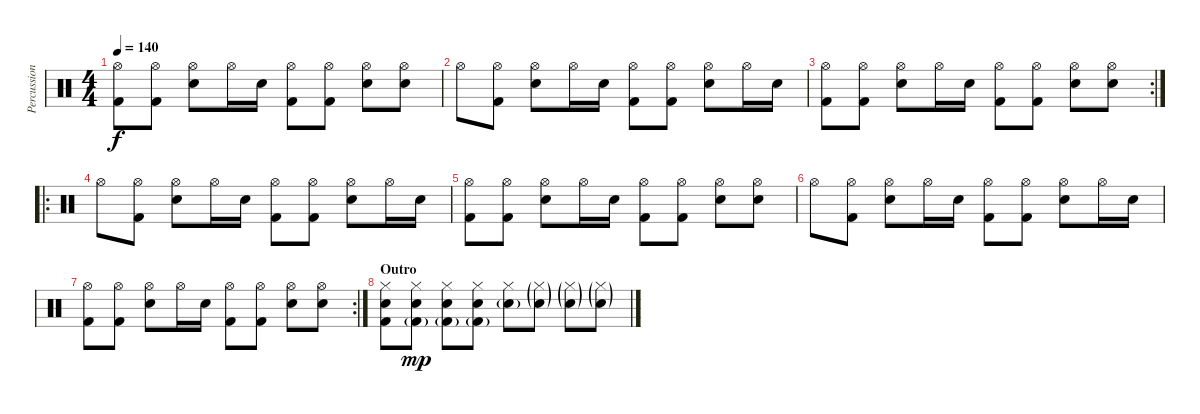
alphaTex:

\track ("Percussion" "Percussion") {instrument percussion}
\staff {score}
\articulation defaults
\ts (4 4)
\tempo 140
\clef neutral
\ks c
("Hi-Hat (open)" "Kick (hit) 2").8{dy f} ("Hi-Hat (open)" "Kick (hit) 2").8 ("Hi-Hat (open)" "Snare (hit) 2").8 "Hi-Hat (open)".16 "Snare (hit) 2".16 ("Hi-Hat (open)" "Kick (hit) 2").8 ("Hi-Hat (open)" "Kick (hit) 2").8 ("Hi-Hat (open)" "Snare (hit) 2").8 ("Hi-Hat (open)" "Snare (hit) 2").8 |
"Hi-Hat (open)".8 ("Hi-Hat (open)" "Kick (hit) 2").8 ("Hi-Hat (open)" "Snare (hit) 2").8 "Hi-Hat (open)".16 "Snare (hit) 2".16 ("Hi-Hat (open)" "Kick (hit) 2").8 ("Hi-Hat (open)" "Kick (hit) 2").8 ("Hi-Hat (open)" "Snare (hit) 2").8 "Hi-Hat (open)".16 "Snare (hit) 2".16 |
\rc 2
("Hi-Hat (open)" "Kick (hit) 2").8 ("Hi-Hat (open)" "Kick (hit) 2").8 ("Hi-Hat (open)" "Snare (hit) 2").8 "Hi-Hat (open)".16 "Snare (hit) 2".16 ("Hi-Hat (open)" "Kick (hit) 2").8 ("Hi-Hat (open)" "Kick (hit) 2").8 ("Hi-Hat (open)" "Snare (hit) 2").8 ("Hi-Hat (open)" "Snare (hit) 2").8 |
\ro "Hi-Hat (open)".8
("Hi-Hat (open)" "Kick (hit) 2").8 ("Hi-Hat (open)" "Snare (hit) 2").8 "Hi-Hat (open)".16 "Snare (hit) 2".16 ("Hi-Hat (open)" "Kick (hit) 2").8 ("Hi-Hat (open)" "Kick (hit) 2").8 ("Hi-Hat (open)" "Snare (hit) 2").8 "Hi-Hat (open)".16 "Snare (hit) 2".16 |
("Hi-Hat (open)" "Kick (hit) 2").8 ("Hi-Hat (open)" "Kick (hit) 2").8 ("Hi-Hat (open)" "Snare (hit) 2").8 "Hi-Hat (open)".16 "Snare (hit) 2".16 ("Hi-Hat (open)" "Kick (hit) 2").8 ("Hi-Hat (open)" "Kick (hit) 2").8 ("Hi-Hat (open)" "Snare (hit) 2").8 ("Hi-Hat (open)" "Snare (hit) 2").8 |
"Hi-Hat (open)".8 ("Hi-Hat (open)" "Kick (hit) 2").8 ("Hi-Hat (open)" "Snare (hit) 2").8 "Hi-Hat (open)".16 "Snare (hit) 2".16 ("Hi-Hat (open)" "Kick (hit) 2").8 ("Hi-Hat (open)" "Kick (hit) 2").8 ("Hi-Hat (open)" "Snare (hit) 2").8 "Hi-Hat (open)".16 "Snare (hit) 2".16 |
\rc 2
("Hi-Hat (open)" "Kick (hit) 2").8 ("Hi-Hat (open)" "Kick (hit) 2").8 ("Hi-Hat (open)" "Snare (hit) 2").8 "Hi-Hat (open)".16 "Snare (hit) 2".16 ("Hi-Hat (open)" "Kick (hit) 2").8 ("Hi-Hat (open)" "Kick (hit) 2").8 ("Hi-Hat (open)" "Snare (hit) 2").8 ("Hi-Hat (open)" "Snare (hit) 2").8 |
\section ("" "Outro")
("Kick (hit) 2" "Hi-Hat (closed)" "Snare (hit) 2").8 ("Kick (hit) 2"{g} "Hi-Hat (closed)" "Snare (hit) 2").8{dy mp} ("Kick (hit) 2"{g} "Hi-Hat (closed)" "Snare (hit) 2").8 ("Kick (hit) 2"{g} "Hi-Hat (closed)" "Snare (hit) 2").8 ("Hi-Hat (closed)" "Snare (hit) 2"{g}).8 ("Hi-Hat (closed)"{g} "Snare (hit) 2"{g}).8 ("Hi-Hat (closed)"{g} "Snare (hit) 2"{g}).8 ("Hi-Hat (closed)"{g} "Snare (hit) 2"{g}).8
